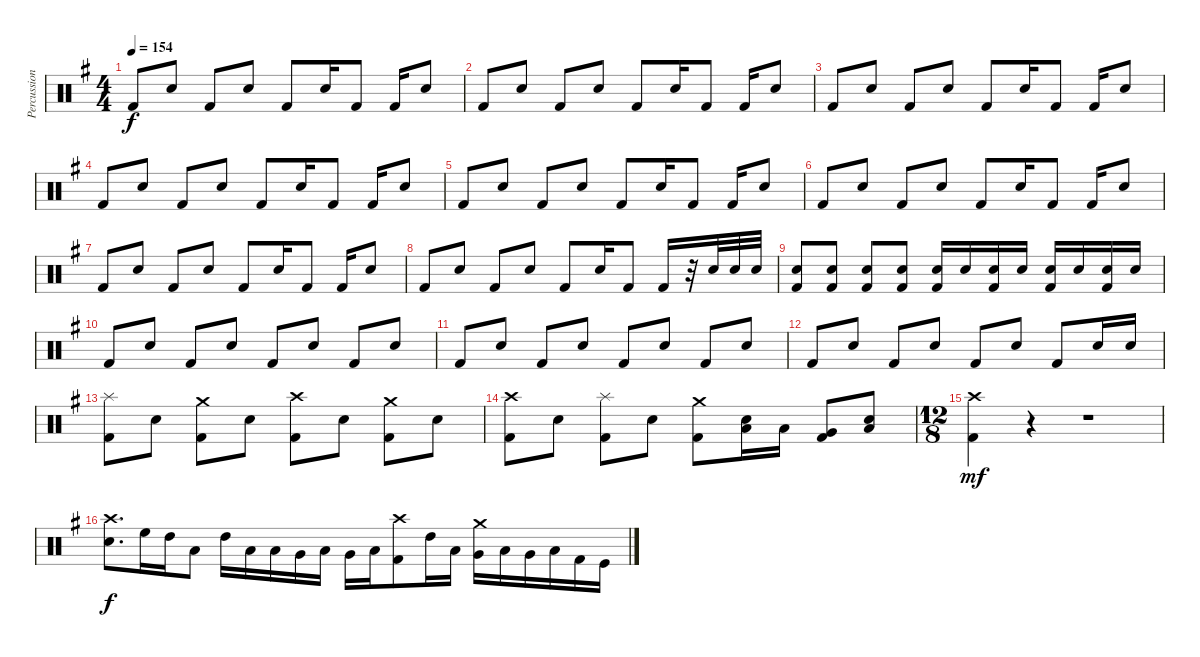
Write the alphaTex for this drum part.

\track ("Percussion" "Percussion") {instrument percussion}
\staff {score}
\articulation defaults
\ts (4 4)
\tempo 154
\clef neutral
\ks eminor "Kick (hit) 2".8{dy f} "Electric Snare (hit)".8 "Kick (hit) 2".8 "Electric Snare (hit)".8 "Kick (hit) 2".8 "Electric Snare (hit)".16 "Kick (hit) 2".8 "Kick (hit) 2".16 "Electric Snare (hit)".8
|
"Kick (hit) 2".8 "Electric Snare (hit)".8 "Kick (hit) 2".8 "Electric Snare (hit)".8 "Kick (hit) 2".8 "Electric Snare (hit)".16 "Kick (hit) 2".8 "Kick (hit) 2".16 "Electric Snare (hit)".8 |
"Kick (hit) 2".8 "Electric Snare (hit)".8 "Kick (hit) 2".8 "Electric Snare (hit)".8 "Kick (hit) 2".8 "Electric Snare (hit)".16 "Kick (hit) 2".8 "Kick (hit) 2".16 "Electric Snare (hit)".8 |
"Kick (hit) 2".8 "Electric Snare (hit)".8 "Kick (hit) 2".8 "Electric Snare (hit)".8 "Kick (hit) 2".8 "Electric Snare (hit)".16 "Kick (hit) 2".8 "Kick (hit) 2".16 "Electric Snare (hit)".8 |
"Kick (hit) 2".8 "Electric Snare (hit)".8 "Kick (hit) 2".8 "Electric Snare (hit)".8 "Kick (hit) 2".8 "Electric Snare (hit)".16 "Kick (hit) 2".8 "Kick (hit) 2".16 "Electric Snare (hit)".8 |
"Kick (hit) 2".8 "Electric Snare (hit)".8 "Kick (hit) 2".8 "Electric Snare (hit)".8 "Kick (hit) 2".8 "Electric Snare (hit)".16 "Kick (hit) 2".8 "Kick (hit) 2".16 "Electric Snare (hit)".8 |
"Kick (hit) 2".8 "Electric Snare (hit)".8 "Kick (hit) 2".8 "Electric Snare (hit)".8 "Kick (hit) 2".8 "Electric Snare (hit)".16 "Kick (hit) 2".8 "Kick (hit) 2".16 "Electric Snare (hit)".8 |
"Kick (hit) 2".8 "Electric Snare (hit)".8 "Kick (hit) 2".8 "Electric Snare (hit)".8 "Kick (hit) 2".8 "Electric Snare (hit)".16 "Kick (hit) 2".8 "Kick (hit) 2".16 r.32 "Electric Snare (hit)".32 "Electric Snare (hit)".32 "Electric Snare (hit)".32 |
("Kick (hit) 2" "Electric Snare (hit)").8 ("Kick (hit) 2" "Electric Snare (hit)").8 ("Kick (hit) 2" "Electric Snare (hit)").8 ("Kick (hit) 2" "Electric Snare (hit)").8 ("Kick (hit) 2" "Electric Snare (hit)").16 "Electric Snare (hit)".16 ("Kick (hit) 2" "Electric Snare (hit)").16 "Electric Snare (hit)".16 ("Kick (hit) 2" "Electric Snare (hit)").16 "Electric Snare (hit)".16 ("Kick (hit) 2" "Electric Snare (hit)").16 "Electric Snare (hit)".16 |
"Kick (hit) 2".8 "Electric Snare (hit)".8 "Kick (hit) 2".8 "Electric Snare (hit)".8 "Kick (hit) 2".8 "Electric Snare (hit)".8 "Kick (hit) 2".8 "Electric Snare (hit)".8 |
"Kick (hit) 2".8 "Electric Snare (hit)".8 "Kick (hit) 2".8 "Electric Snare (hit)".8 "Kick (hit) 2".8 "Electric Snare (hit)".8 "Kick (hit) 2".8 "Electric Snare (hit)".8 |
"Kick (hit) 2".8 "Electric Snare (hit)".8 "Kick (hit) 2".8 "Electric Snare (hit)".8 "Kick (hit) 2".8 "Electric Snare (hit)".8 "Kick (hit) 2".8 "Electric Snare (hit)".16 "Electric Snare (hit)".16 |
("Kick (hit) 2" "Splash (hit)").8 "Electric Snare (hit)".8 ("Kick (hit) 2" "Crash medium (hit)").8 "Electric Snare (hit)".8 ("Kick (hit) 2" "Crash high (hit)").8 "Electric Snare (hit)".8 ("Kick (hit) 2" "Crash medium (hit)").8 "Electric Snare (hit)".8 |
("Kick (hit) 2" "Crash high (hit)").8 "Electric Snare (hit)".8 ("Kick (hit) 2" "Splash (hit)").8 "Electric Snare (hit)".8 ("Kick (hit) 2" "Crash medium (hit)").8 ("Electric Snare (hit)" "Low Floor Tom (hit)").16 "Low Floor Tom (hit)".16 ("Kick (hit) 2" "Very Low Tom (hit)").8 ("Electric Snare (hit)" "Low Floor Tom (hit)").8 |
\ts (12 8)
("Kick (hit) 2" "Crash high (hit)").4{dy mf} r.4 r.1 |
("Electric Snare (hit)" "Crash high (hit)").8{d dy f} "High Floor Tom (hit)".16 "High Tom (hit)".16 "Low Tom (hit)".8 "High Tom (hit)".16 "Low Tom (hit)".16 "Low Tom (hit)".16 "Very Low Tom (hit)".16 "Low Tom (hit)".16 "Very Low Tom (hit)".16 "Low Floor Tom (hit)".16 ("Kick (hit) 2" "Crash high (hit)").8 "High Tom (hit)".16 "Low Tom (hit)".16 ("Very Low Tom (hit)" "Crash medium (hit)").16 "Low Tom (hit)".16 "Very Low Tom (hit)".16 "Low Floor Tom (hit)".16 "Kick (hit) 2".16 "Kick (hit)".16
